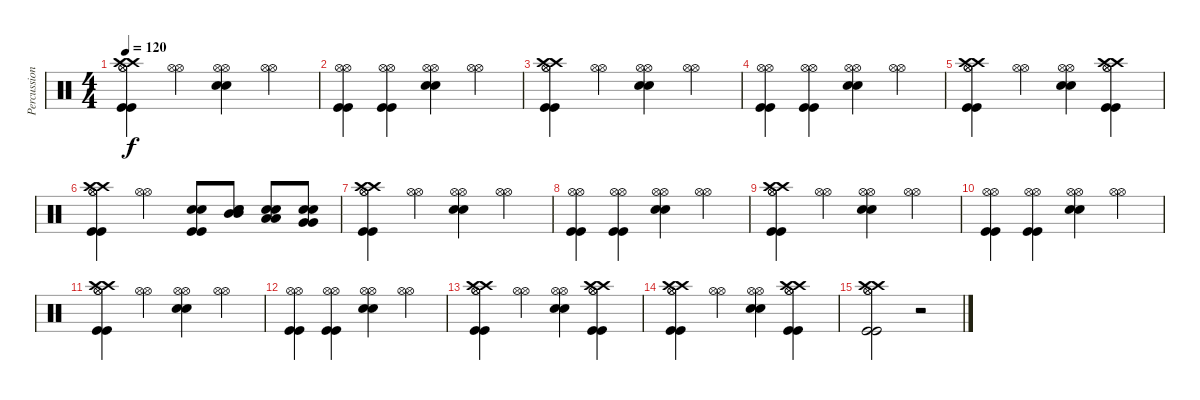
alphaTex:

\track ("Percussion" "Percussion") {instrument percussion}
\staff {score}
\articulation defaults
\ts (4 4)
\tempo 120
\clef neutral
\ks c
("Hi-Hat (open)" "Hi-Hat (open)" "Kick (hit)" "Kick (hit)" "Crash high (hit)" "Crash high (hit)").4{dy f} ("Hi-Hat (open)" "Hi-Hat (open)").4 ("Hi-Hat (open)" "Hi-Hat (open)" "Electric Snare (hit)" "Electric Snare (hit)").4 ("Hi-Hat (open)" "Hi-Hat (open)").4 |
("Hi-Hat (open)" "Hi-Hat (open)" "Kick (hit)" "Kick (hit)").4 ("Hi-Hat (open)" "Hi-Hat (open)" "Kick (hit)" "Kick (hit)").4 ("Hi-Hat (open)" "Hi-Hat (open)" "Electric Snare (hit)" "Electric Snare (hit)").4 ("Hi-Hat (open)" "Hi-Hat (open)").4 |
("Hi-Hat (open)" "Hi-Hat (open)" "Kick (hit)" "Kick (hit)" "Crash high (hit)" "Crash high (hit)").4 ("Hi-Hat (open)" "Hi-Hat (open)").4 ("Hi-Hat (open)" "Hi-Hat (open)" "Electric Snare (hit)" "Electric Snare (hit)").4 ("Hi-Hat (open)" "Hi-Hat (open)").4 |
("Hi-Hat (open)" "Hi-Hat (open)" "Kick (hit)" "Kick (hit)").4 ("Hi-Hat (open)" "Hi-Hat (open)" "Kick (hit)" "Kick (hit)").4 ("Hi-Hat (open)" "Hi-Hat (open)" "Electric Snare (hit)" "Electric Snare (hit)").4 ("Hi-Hat (open)" "Hi-Hat (open)").4 |
("Hi-Hat (open)" "Hi-Hat (open)" "Kick (hit)" "Kick (hit)" "Crash high (hit)" "Crash high (hit)").4 ("Hi-Hat (open)" "Hi-Hat (open)").4 ("Hi-Hat (open)" "Hi-Hat (open)" "Electric Snare (hit)" "Electric Snare (hit)").4 ("Hi-Hat (open)" "Hi-Hat (open)" "Kick (hit)" "Kick (hit)" "Crash high (hit)" "Crash high (hit)").4 |
("Hi-Hat (open)" "Hi-Hat (open)" "Kick (hit)" "Kick (hit)" "Crash high (hit)" "Crash high (hit)").4 ("Hi-Hat (open)" "Hi-Hat (open)").4 ("Kick (hit)" "Kick (hit)" "Electric Snare (hit)" "Electric Snare (hit)").8 ("Mid Tom (hit)" "Mid Tom (hit)" "Electric Snare (hit)" "Electric Snare (hit)").8 ("Low Tom (hit)" "Low Tom (hit)" "Electric Snare (hit)" "Electric Snare (hit)").8 ("Very Low Tom (hit)" "Very Low Tom (hit)" "Electric Snare (hit)" "Electric Snare (hit)").8 |
("Hi-Hat (open)" "Hi-Hat (open)" "Kick (hit)" "Kick (hit)" "Crash high (hit)" "Crash high (hit)").4 ("Hi-Hat (open)" "Hi-Hat (open)").4 ("Hi-Hat (open)" "Hi-Hat (open)" "Electric Snare (hit)" "Electric Snare (hit)").4 ("Hi-Hat (open)" "Hi-Hat (open)").4 |
("Hi-Hat (open)" "Hi-Hat (open)" "Kick (hit)" "Kick (hit)").4 ("Hi-Hat (open)" "Hi-Hat (open)" "Kick (hit)" "Kick (hit)").4 ("Hi-Hat (open)" "Hi-Hat (open)" "Electric Snare (hit)" "Electric Snare (hit)").4 ("Hi-Hat (open)" "Hi-Hat (open)").4 |
("Hi-Hat (open)" "Hi-Hat (open)" "Kick (hit)" "Kick (hit)" "Crash high (hit)" "Crash high (hit)").4 ("Hi-Hat (open)" "Hi-Hat (open)").4 ("Hi-Hat (open)" "Hi-Hat (open)" "Electric Snare (hit)" "Electric Snare (hit)").4 ("Hi-Hat (open)" "Hi-Hat (open)").4 |
("Hi-Hat (open)" "Hi-Hat (open)" "Kick (hit)" "Kick (hit)").4 ("Hi-Hat (open)" "Hi-Hat (open)" "Kick (hit)" "Kick (hit)").4 ("Hi-Hat (open)" "Hi-Hat (open)" "Electric Snare (hit)" "Electric Snare (hit)").4 ("Hi-Hat (open)" "Hi-Hat (open)").4 |
("Hi-Hat (open)" "Hi-Hat (open)" "Kick (hit)" "Kick (hit)" "Crash high (hit)" "Crash high (hit)").4 ("Hi-Hat (open)" "Hi-Hat (open)").4 ("Hi-Hat (open)" "Hi-Hat (open)" "Electric Snare (hit)" "Electric Snare (hit)").4 ("Hi-Hat (open)" "Hi-Hat (open)").4 |
("Hi-Hat (open)" "Hi-Hat (open)" "Kick (hit)" "Kick (hit)").4 ("Hi-Hat (open)" "Hi-Hat (open)" "Kick (hit)" "Kick (hit)").4 ("Hi-Hat (open)" "Hi-Hat (open)" "Electric Snare (hit)" "Electric Snare (hit)").4 ("Hi-Hat (open)" "Hi-Hat (open)").4 |
("Hi-Hat (open)" "Hi-Hat (open)" "Kick (hit)" "Kick (hit)" "Crash high (hit)" "Crash high (hit)").4 ("Hi-Hat (open)" "Hi-Hat (open)").4 ("Hi-Hat (open)" "Hi-Hat (open)" "Electric Snare (hit)" "Electric Snare (hit)").4 ("Hi-Hat (open)" "Hi-Hat (open)" "Kick (hit)" "Kick (hit)" "Crash high (hit)" "Crash high (hit)").4 |
("Hi-Hat (open)" "Hi-Hat (open)" "Kick (hit)" "Kick (hit)" "Crash high (hit)" "Crash high (hit)").4 ("Hi-Hat (open)" "Hi-Hat (open)").4 ("Hi-Hat (open)" "Hi-Hat (open)" "Electric Snare (hit)" "Electric Snare (hit)").4 ("Hi-Hat (open)" "Hi-Hat (open)" "Kick (hit)" "Kick (hit)" "Crash high (hit)" "Crash high (hit)").4 |
("Hi-Hat (open)" "Hi-Hat (open)" "Kick (hit)" "Kick (hit)" "Crash high (hit)" "Crash high (hit)").2 r.2
